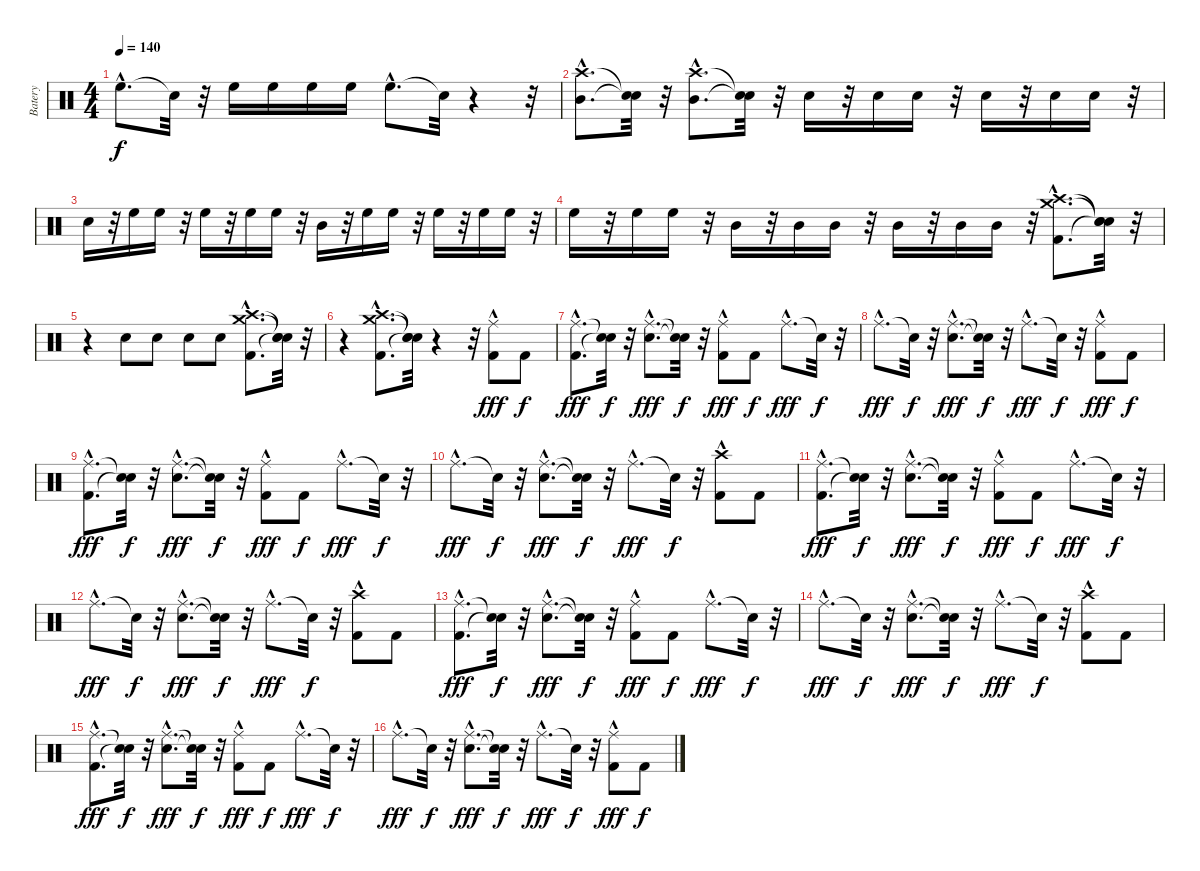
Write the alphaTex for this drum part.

\track ("Batery" "Batery") {instrument percussion}
\staff {score}
\articulation defaults
\ts (4 4)
\tempo 140
\clef neutral
\ks c "High Floor Tom (hit)"{hac}.8{d dy f} "Snare (hit)"{t}.32
r.32 "High Floor Tom (hit)".16 "High Floor Tom (hit)".16 "High Floor Tom (hit)".16 "High Floor Tom (hit)".16 "High Floor Tom (hit)"{hac}.8{d} "Snare (hit)"{t}.32 r.4 r.32 |
("Mid Tom (hit)"{hac} "Crash high (hit)"{hac}).8{d} ("Snare (hit)"{t} "Snare (hit)"{t}).32 r.32 ("Mid Tom (hit)"{hac} "Crash high (hit)"{hac}).8{d} ("Snare (hit)"{t} "Snare (hit)"{t}).32 r.32 "Snare (hit) 2".16 r.32 "Snare (hit) 2".16 "Snare (hit) 2".16 r.32 "Snare (hit) 2".16 r.32 "Snare (hit) 2".16 "Snare (hit) 2".16 r.32 |
"Snare (hit) 2".16 r.32 "High Floor Tom (hit)".16 "High Floor Tom (hit)".16 r.32 "High Floor Tom (hit)".16 r.32 "High Floor Tom (hit)".16 "High Floor Tom (hit)".16 r.32 "Mid Tom (hit)".16 r.32 "High Floor Tom (hit)".16 "High Floor Tom (hit)".16 r.32 "High Floor Tom (hit)".16 r.32 "High Floor Tom (hit)".16 "High Floor Tom (hit)".16 r.32 |
"High Floor Tom (hit)".16 r.32 "High Floor Tom (hit)".16 "High Floor Tom (hit)".16 r.32 "Mid Tom (hit)".16 r.32 "Mid Tom (hit)".16 "Mid Tom (hit)".16 r.32 "Mid Tom (hit)".16 r.32 "Mid Tom (hit)".16 "Mid Tom (hit)".16 r.32 ("Kick (hit) 2"{hac} "Crash high (hit)"{hac} "Crash medium (hit)"{hac}).8{d} ("Snare (hit)"{t} "Snare (hit)"{t} "Snare (hit)"{t}).32 r.32 |
r.4 "Snare (hit) 2".8 "Snare (hit) 2".8 "Snare (hit) 2".8 "Snare (hit) 2".8 ("Kick (hit) 2"{hac} "Crash high (hit)"{hac} "Crash medium (hit)"{hac}).8{d} ("Snare (hit)"{t} "Snare (hit)"{t} "Snare (hit)"{t}).32 r.32 |
r.4 ("Kick (hit) 2"{hac} "Crash high (hit)"{hac} "Crash medium (hit)"{hac}).8{d} ("Snare (hit)"{t} "Snare (hit)"{t} "Snare (hit)"{t}).32 r.4 r.32 ("Ride (middle)"{hac} "Kick (hit) 2").8{dy fff} "Kick (hit) 2".8{dy f} |
("Ride (middle)"{hac} "Kick (hit) 2"{hac}).8{d dy fff} ("Snare (hit)"{t} "Snare (hit)"{t}).32{dy f} r.32 ("Ride (middle)"{hac} "Snare (hit) 2"{hac}).8{d dy fff} ("Snare (hit)"{t} "Snare (hit)"{t}).32{dy f} r.32 ("Ride (middle)"{hac} "Kick (hit) 2").8{dy fff} "Kick (hit) 2".8{dy f} "Ride (middle)"{hac}.8{d dy fff} "Snare (hit)"{t}.32{dy f} r.32 |
"Ride (middle)"{hac}.8{d dy fff} "Snare (hit)"{t}.32{dy f} r.32 ("Ride (middle)"{hac} "Snare (hit) 2"{hac}).8{d dy fff} ("Snare (hit)"{t} "Snare (hit)"{t}).32{dy f} r.32 "Ride (middle)"{hac}.8{d dy fff} "Snare (hit)"{t}.32{dy f} r.32 ("Ride (middle)"{hac} "Kick (hit) 2").8{dy fff} "Kick (hit) 2".8{dy f} |
("Ride (middle)"{hac} "Kick (hit) 2"{hac}).8{d dy fff} ("Snare (hit)"{t} "Snare (hit)"{t}).32{dy f} r.32 ("Ride (middle)"{hac} "Snare (hit) 2"{hac}).8{d dy fff} ("Snare (hit)"{t} "Snare (hit)"{t}).32{dy f} r.32 ("Ride (middle)"{hac} "Kick (hit) 2").8{dy fff} "Kick (hit) 2".8{dy f} "Ride (middle)"{hac}.8{d dy fff} "Snare (hit)"{t}.32{dy f} r.32 |
"Ride (middle)"{hac}.8{d dy fff} "Snare (hit)"{t}.32{dy f} r.32 ("Ride (middle)"{hac} "Snare (hit) 2"{hac}).8{d dy fff} ("Snare (hit)"{t} "Snare (hit)"{t}).32{dy f} r.32 "Ride (middle)"{hac}.8{d dy fff} "Snare (hit)"{t}.32{dy f} r.32 ("Crash high (hit)"{hac} "Kick (hit) 2").8 "Kick (hit) 2".8 |
("Ride (middle)"{hac} "Kick (hit) 2"{hac}).8{d dy fff} ("Snare (hit)"{t} "Snare (hit)"{t}).32{dy f} r.32 ("Ride (middle)"{hac} "Snare (hit) 2"{hac}).8{d dy fff} ("Snare (hit)"{t} "Snare (hit)"{t}).32{dy f} r.32 ("Ride (middle)"{hac} "Kick (hit) 2").8{dy fff} "Kick (hit) 2".8{dy f} "Ride (middle)"{hac}.8{d dy fff} "Snare (hit)"{t}.32{dy f} r.32 |
"Ride (middle)"{hac}.8{d dy fff} "Snare (hit)"{t}.32{dy f} r.32 ("Ride (middle)"{hac} "Snare (hit) 2"{hac}).8{d dy fff} ("Snare (hit)"{t} "Snare (hit)"{t}).32{dy f} r.32 "Ride (middle)"{hac}.8{d dy fff} "Snare (hit)"{t}.32{dy f} r.32 ("Crash high (hit)"{hac} "Kick (hit) 2").8 "Kick (hit) 2".8 |
("Ride (middle)"{hac} "Kick (hit) 2"{hac}).8{d dy fff} ("Snare (hit)"{t} "Snare (hit)"{t}).32{dy f} r.32 ("Ride (middle)"{hac} "Snare (hit) 2"{hac}).8{d dy fff} ("Snare (hit)"{t} "Snare (hit)"{t}).32{dy f} r.32 ("Ride (middle)"{hac} "Kick (hit) 2").8{dy fff} "Kick (hit) 2".8{dy f} "Ride (middle)"{hac}.8{d dy fff} "Snare (hit)"{t}.32{dy f} r.32 |
"Ride (middle)"{hac}.8{d dy fff} "Snare (hit)"{t}.32{dy f} r.32 ("Ride (middle)"{hac} "Snare (hit) 2"{hac}).8{d dy fff} ("Snare (hit)"{t} "Snare (hit)"{t}).32{dy f} r.32 "Ride (middle)"{hac}.8{d dy fff} "Snare (hit)"{t}.32{dy f} r.32 ("Crash high (hit)"{hac} "Kick (hit) 2").8 "Kick (hit) 2".8 |
("Ride (middle)"{hac} "Kick (hit) 2"{hac}).8{d dy fff} ("Snare (hit)"{t} "Snare (hit)"{t}).32{dy f} r.32 ("Ride (middle)"{hac} "Snare (hit) 2"{hac}).8{d dy fff} ("Snare (hit)"{t} "Snare (hit)"{t}).32{dy f} r.32 ("Ride (middle)"{hac} "Kick (hit) 2").8{dy fff} "Kick (hit) 2".8{dy f} "Ride (middle)"{hac}.8{d dy fff} "Snare (hit)"{t}.32{dy f} r.32 |
"Ride (middle)"{hac}.8{d dy fff} "Snare (hit)"{t}.32{dy f} r.32 ("Ride (middle)"{hac} "Snare (hit) 2"{hac}).8{d dy fff} ("Snare (hit)"{t} "Snare (hit)"{t}).32{dy f} r.32 "Ride (middle)"{hac}.8{d dy fff} "Snare (hit)"{t}.32{dy f} r.32 ("Ride (middle)"{hac} "Kick (hit) 2").8{dy fff} "Kick (hit) 2".8{dy f}
